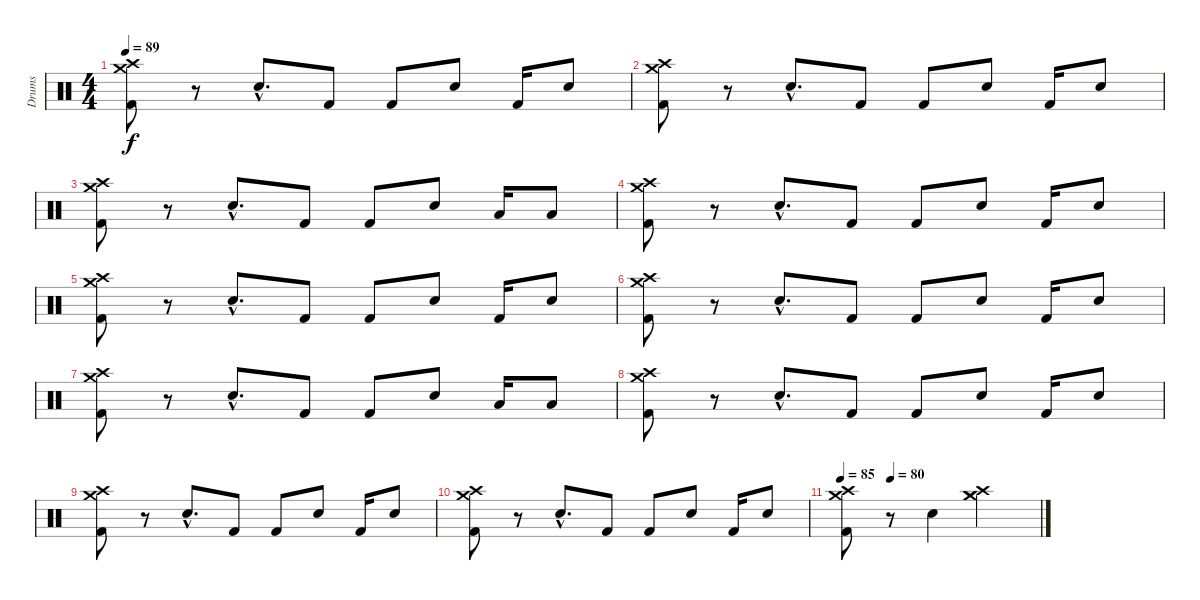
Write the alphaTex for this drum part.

\track ("Drums" "Drums") {instrument percussion}
\staff {score}
\articulation defaults
\ts (4 4)
\tempo 89
\clef neutral
\ks c
("Crash high (hit)" "Crash medium (hit)" "Kick (hit) 2").8{dy f} r.8 "Snare (hit) 2"{hac}.8{d} "Kick (hit) 2".8 "Kick (hit) 2".8 "Snare (hit) 2".8 "Kick (hit) 2".16 "Snare (hit) 2".8 |
("Crash high (hit)" "Crash medium (hit)" "Kick (hit) 2").8 r.8 "Snare (hit) 2"{hac}.8{d} "Kick (hit) 2".8 "Kick (hit) 2".8 "Snare (hit) 2".8 "Kick (hit) 2".16 "Snare (hit) 2".8 |
("Crash high (hit)" "Crash medium (hit)" "Kick (hit) 2").8 r.8 "Snare (hit) 2"{hac}.8{d} "Kick (hit) 2".8 "Kick (hit) 2".8 "Snare (hit) 2".8 "Low Tom (hit)".16 "Low Tom (hit)".8 |
("Crash high (hit)" "Crash medium (hit)" "Kick (hit) 2").8 r.8 "Snare (hit) 2"{hac}.8{d} "Kick (hit) 2".8 "Kick (hit) 2".8 "Snare (hit) 2".8 "Kick (hit) 2".16 "Snare (hit) 2".8 |
("Crash high (hit)" "Crash medium (hit)" "Kick (hit) 2").8 r.8 "Snare (hit) 2"{hac}.8{d} "Kick (hit) 2".8 "Kick (hit) 2".8 "Snare (hit) 2".8 "Kick (hit) 2".16 "Snare (hit) 2".8 |
("Crash high (hit)" "Crash medium (hit)" "Kick (hit) 2").8 r.8 "Snare (hit) 2"{hac}.8{d} "Kick (hit) 2".8 "Kick (hit) 2".8 "Snare (hit) 2".8 "Kick (hit) 2".16 "Snare (hit) 2".8 |
("Crash high (hit)" "Crash medium (hit)" "Kick (hit) 2").8 r.8 "Snare (hit) 2"{hac}.8{d} "Kick (hit) 2".8 "Kick (hit) 2".8 "Snare (hit) 2".8 "Low Tom (hit)".16 "Low Tom (hit)".8 |
("Crash high (hit)" "Crash medium (hit)" "Kick (hit) 2").8 r.8 "Snare (hit) 2"{hac}.8{d} "Kick (hit) 2".8 "Kick (hit) 2".8 "Snare (hit) 2".8 "Kick (hit) 2".16 "Snare (hit) 2".8 |
("Crash high (hit)" "Crash medium (hit)" "Kick (hit) 2").8 r.8 "Snare (hit) 2"{hac}.8{d} "Kick (hit) 2".8 "Kick (hit) 2".8 "Snare (hit) 2".8 "Kick (hit) 2".16 "Snare (hit) 2".8 |
("Crash high (hit)" "Crash medium (hit)" "Kick (hit) 2").8 r.8 "Snare (hit) 2"{hac}.8{d} "Kick (hit) 2".8 "Kick (hit) 2".8 "Snare (hit) 2".8 "Kick (hit) 2".16 "Snare (hit) 2".8 |
\tempo 85
\tempo (80 0.25)
("Crash high (hit)" "Crash medium (hit)" "Kick (hit) 2").8 r.8 "Snare (hit) 2".4 ("Crash high (hit)" "Crash medium (hit)" "Crash medium (hit)").2
